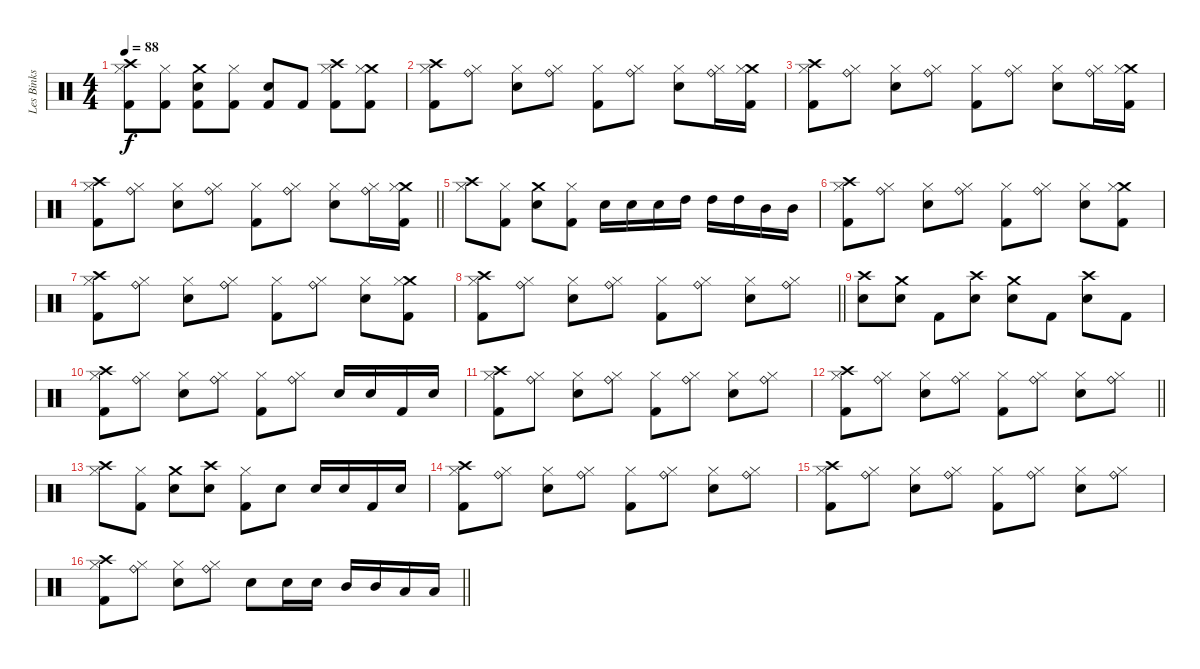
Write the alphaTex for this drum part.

\track ("Les Binks" "Les Binks") {instrument percussion}
\staff {score}
\articulation defaults
\ts (4 4)
\tempo 88
\clef neutral
\ks c
("Crash high (hit)" "Hi-Hat (closed)" "Kick (hit) 2").8{dy f} ("Hi-Hat (closed)" "Kick (hit) 2").8 ("Crash medium (hit)" "Snare (hit) 2" "Kick (hit) 2").8 ("Hi-Hat (closed)" "Kick (hit) 2").8 ("Snare (hit) 2" "Kick (hit) 2").8 "Kick (hit) 2".8 ("Crash high (hit)" "Hi-Hat (closed)" "Kick (hit) 2").8 ("Crash medium (hit)" "Hi-Hat (closed)" "Kick (hit) 2").8 |
("Crash high (hit)" "Hi-Hat (closed)" "Kick (hit) 2").8 ("Ride (bell)" "Hi-Hat (closed)").8 ("Hi-Hat (closed)" "Snare (hit) 2").8 ("Ride (bell)" "Hi-Hat (closed)").8 ("Hi-Hat (closed)" "Kick (hit) 2").8 ("Ride (bell)" "Hi-Hat (closed)").8 ("Hi-Hat (closed)" "Snare (hit) 2").8 ("Ride (bell)" "Hi-Hat (closed)").16 ("Crash medium (hit)" "Hi-Hat (closed)" "Kick (hit) 2").16 |
("Crash high (hit)" "Hi-Hat (closed)" "Kick (hit) 2").8 ("Ride (bell)" "Hi-Hat (closed)").8 ("Hi-Hat (closed)" "Snare (hit) 2").8 ("Ride (bell)" "Hi-Hat (closed)").8 ("Hi-Hat (closed)" "Kick (hit) 2").8 ("Ride (bell)" "Hi-Hat (closed)").8 ("Hi-Hat (closed)" "Snare (hit) 2").8 ("Ride (bell)" "Hi-Hat (closed)").16 ("Crash medium (hit)" "Hi-Hat (closed)" "Kick (hit) 2").16 |
\barLineRight lightlight
("Crash high (hit)" "Hi-Hat (closed)" "Kick (hit) 2").8 ("Ride (bell)" "Hi-Hat (closed)").8 ("Hi-Hat (closed)" "Snare (hit) 2").8 ("Ride (bell)" "Hi-Hat (closed)").8 ("Hi-Hat (closed)" "Kick (hit) 2").8 ("Ride (bell)" "Hi-Hat (closed)").8 ("Hi-Hat (closed)" "Snare (hit) 2").8 ("Ride (bell)" "Hi-Hat (closed)").16 ("Crash medium (hit)" "Hi-Hat (closed)" "Kick (hit) 2").16 |
("Crash high (hit)" "Hi-Hat (closed)").8 ("Hi-Hat (closed)" "Kick (hit) 2").8 ("Crash medium (hit)" "Snare (hit) 2").8 ("Hi-Hat (closed)" "Kick (hit) 2").8 "Snare (hit) 2".16 "Snare (hit) 2".16 "Snare (hit) 2".16 "High Tom (hit)".16 "High Tom (hit)".16 "High Tom (hit)".16 "Mid Tom (hit)".16 "Mid Tom (hit)".16 |
("Crash high (hit)" "Hi-Hat (closed)" "Kick (hit) 2").8 ("Ride (bell)" "Hi-Hat (closed)").8 ("Hi-Hat (closed)" "Snare (hit) 2").8 ("Ride (bell)" "Hi-Hat (closed)").8 ("Hi-Hat (closed)" "Kick (hit) 2").8 ("Ride (bell)" "Hi-Hat (closed)").8 ("Hi-Hat (closed)" "Snare (hit) 2").8 ("Crash medium (hit)" "Hi-Hat (closed)" "Kick (hit) 2").8 |
("Crash high (hit)" "Hi-Hat (closed)" "Kick (hit) 2").8 ("Ride (bell)" "Hi-Hat (closed)").8 ("Hi-Hat (closed)" "Snare (hit) 2").8 ("Ride (bell)" "Hi-Hat (closed)").8 ("Hi-Hat (closed)" "Kick (hit) 2").8 ("Ride (bell)" "Hi-Hat (closed)").8 ("Hi-Hat (closed)" "Snare (hit) 2").8 ("Crash medium (hit)" "Hi-Hat (closed)" "Kick (hit) 2").8 |
\barLineRight lightlight
("Crash high (hit)" "Hi-Hat (closed)" "Kick (hit) 2").8 ("Ride (bell)" "Hi-Hat (closed)").8 ("Hi-Hat (closed)" "Snare (hit) 2").8 ("Ride (bell)" "Hi-Hat (closed)").8 ("Hi-Hat (closed)" "Kick (hit) 2").8 ("Ride (bell)" "Hi-Hat (closed)").8 ("Hi-Hat (closed)" "Snare (hit) 2").8 ("Ride (bell)" "Hi-Hat (closed)").8 |
("Crash high (hit)" "Snare (hit) 2").8 ("Crash medium (hit)" "Snare (hit) 2").8 "Kick (hit) 2".8 ("Crash high (hit)" "Snare (hit) 2").8 ("Crash medium (hit)" "Snare (hit) 2").8 "Kick (hit) 2".8 ("Crash high (hit)" "Snare (hit) 2").8 "Kick (hit) 2".8 |
("Crash high (hit)" "Hi-Hat (closed)" "Kick (hit) 2").8 ("Ride (bell)" "Hi-Hat (closed)").8 ("Hi-Hat (closed)" "Snare (hit) 2").8 ("Ride (bell)" "Hi-Hat (closed)").8 ("Hi-Hat (closed)" "Kick (hit) 2").8 ("Ride (bell)" "Hi-Hat (closed)").8 "Snare (hit) 2".16 "Snare (hit) 2".16 "Kick (hit) 2".16 "Snare (hit) 2".16 |
("Crash high (hit)" "Hi-Hat (closed)" "Kick (hit) 2").8 ("Ride (bell)" "Hi-Hat (closed)").8 ("Hi-Hat (closed)" "Snare (hit) 2").8 ("Ride (bell)" "Hi-Hat (closed)").8 ("Hi-Hat (closed)" "Kick (hit) 2").8 ("Ride (bell)" "Hi-Hat (closed)").8 ("Hi-Hat (closed)" "Snare (hit) 2").8 ("Ride (bell)" "Hi-Hat (closed)").8 |
\barLineRight lightlight
("Crash high (hit)" "Hi-Hat (closed)" "Kick (hit) 2").8 ("Ride (bell)" "Hi-Hat (closed)").8 ("Hi-Hat (closed)" "Snare (hit) 2").8 ("Ride (bell)" "Hi-Hat (closed)").8 ("Hi-Hat (closed)" "Kick (hit) 2").8 ("Ride (bell)" "Hi-Hat (closed)").8 ("Hi-Hat (closed)" "Snare (hit) 2").8 ("Ride (bell)" "Hi-Hat (closed)").8 |
("Crash high (hit)" "Hi-Hat (closed)").8 ("Hi-Hat (closed)" "Kick (hit) 2").8 ("Crash medium (hit)" "Snare (hit) 2").8 ("Crash high (hit)" "Snare (hit) 2").8 ("Hi-Hat (closed)" "Kick (hit) 2").8 "Snare (hit) 2".8 "Snare (hit) 2".16 "Snare (hit) 2".16 "Kick (hit) 2".16 "Snare (hit) 2".16 |
("Crash high (hit)" "Hi-Hat (closed)" "Kick (hit) 2").8 ("Ride (bell)" "Hi-Hat (closed)").8 ("Hi-Hat (closed)" "Snare (hit) 2").8 ("Ride (bell)" "Hi-Hat (closed)").8 ("Hi-Hat (closed)" "Kick (hit) 2").8 ("Ride (bell)" "Hi-Hat (closed)").8 ("Hi-Hat (closed)" "Snare (hit) 2").8 ("Ride (bell)" "Hi-Hat (closed)").8 |
("Crash high (hit)" "Hi-Hat (closed)" "Kick (hit) 2").8 ("Ride (bell)" "Hi-Hat (closed)").8 ("Hi-Hat (closed)" "Snare (hit) 2").8 ("Ride (bell)" "Hi-Hat (closed)").8 ("Hi-Hat (closed)" "Kick (hit) 2").8 ("Ride (bell)" "Hi-Hat (closed)").8 ("Hi-Hat (closed)" "Snare (hit) 2").8 ("Ride (bell)" "Hi-Hat (closed)").8 |
\barLineRight lightlight
("Crash high (hit)" "Hi-Hat (closed)" "Kick (hit) 2").8 ("Ride (bell)" "Hi-Hat (closed)").8 ("Hi-Hat (closed)" "Snare (hit) 2").8 ("Ride (bell)" "Hi-Hat (closed)").8 "Snare (hit) 2".8 "Snare (hit) 2".16 "Snare (hit) 2".16 "Mid Tom (hit)".16 "Mid Tom (hit)".16 "Low Tom (hit)".16 "Low Tom (hit)".16
